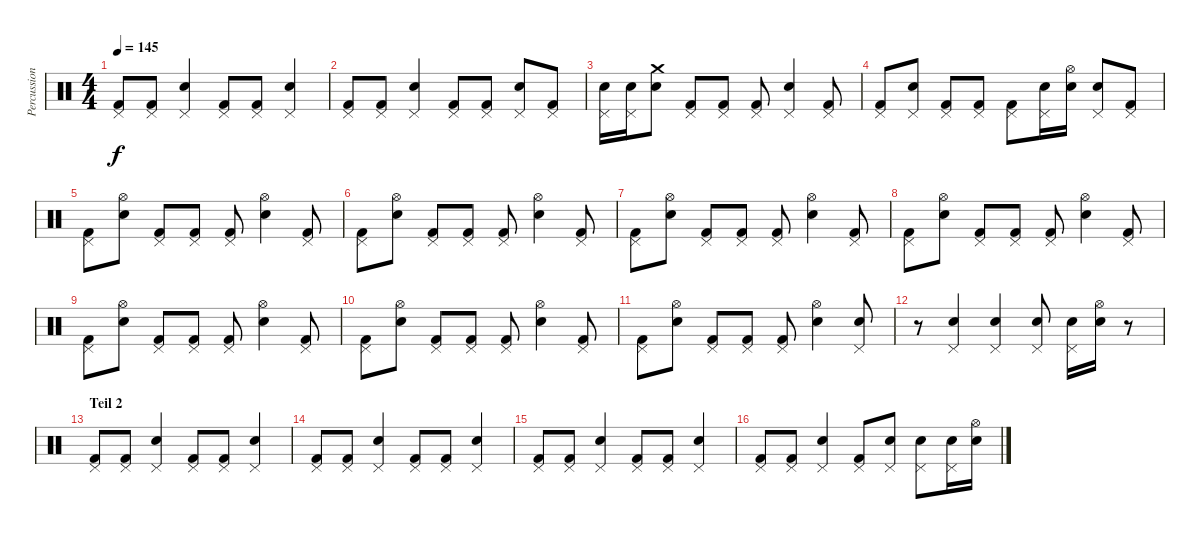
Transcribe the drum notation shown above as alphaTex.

\track ("Percussion" "Percussion") {instrument percussion}
\staff {score}
\articulation defaults
\ts (4 4)
\tempo 145
\clef neutral
\ks c
("Pedal Hi-Hat (hit)" "Kick (hit) 2").8{dy f} ("Pedal Hi-Hat (hit)" "Kick (hit) 2").8 ("Pedal Hi-Hat (hit)" "Snare (hit) 2").4 ("Pedal Hi-Hat (hit)" "Kick (hit) 2").8 ("Pedal Hi-Hat (hit)" "Kick (hit) 2").8 ("Pedal Hi-Hat (hit)" "Snare (hit) 2").4 |
("Pedal Hi-Hat (hit)" "Kick (hit) 2").8 ("Pedal Hi-Hat (hit)" "Kick (hit) 2").8 ("Pedal Hi-Hat (hit)" "Snare (hit) 2").4 ("Pedal Hi-Hat (hit)" "Kick (hit) 2").8 ("Pedal Hi-Hat (hit)" "Kick (hit) 2").8 ("Pedal Hi-Hat (hit)" "Snare (hit) 2").8 ("Pedal Hi-Hat (hit)" "Kick (hit) 2").8 |
("Pedal Hi-Hat (hit)" "Snare (hit) 2").16 ("Pedal Hi-Hat (hit)" "Snare (hit) 2").16 ("Crash medium (hit)" "Snare (hit) 2").8 ("Pedal Hi-Hat (hit)" "Kick (hit) 2").8 ("Pedal Hi-Hat (hit)" "Kick (hit) 2").8 ("Pedal Hi-Hat (hit)" "Kick (hit) 2").8 ("Pedal Hi-Hat (hit)" "Snare (hit) 2").4 ("Pedal Hi-Hat (hit)" "Kick (hit) 2").8 |
("Pedal Hi-Hat (hit)" "Kick (hit) 2").8 ("Pedal Hi-Hat (hit)" "Snare (hit) 2").8 ("Pedal Hi-Hat (hit)" "Kick (hit) 2").8 ("Pedal Hi-Hat (hit)" "Kick (hit) 2").8 ("Pedal Hi-Hat (hit)" "Kick (hit) 2").8 ("Pedal Hi-Hat (hit)" "Snare (hit) 2").16 ("Hi-Hat (open)" "Snare (hit) 2").16 ("Pedal Hi-Hat (hit)" "Snare (hit) 2").8 ("Pedal Hi-Hat (hit)" "Kick (hit) 2").8 |
("Pedal Hi-Hat (hit)" "Kick (hit) 2").8 ("Hi-Hat (open)" "Snare (hit) 2").8 ("Pedal Hi-Hat (hit)" "Kick (hit) 2").8 ("Pedal Hi-Hat (hit)" "Kick (hit) 2").8 ("Pedal Hi-Hat (hit)" "Kick (hit) 2").8 ("Hi-Hat (open)" "Snare (hit) 2").4 ("Pedal Hi-Hat (hit)" "Kick (hit) 2").8 |
("Pedal Hi-Hat (hit)" "Kick (hit) 2").8 ("Hi-Hat (open)" "Snare (hit) 2").8 ("Pedal Hi-Hat (hit)" "Kick (hit) 2").8 ("Pedal Hi-Hat (hit)" "Kick (hit) 2").8 ("Pedal Hi-Hat (hit)" "Kick (hit) 2").8 ("Hi-Hat (open)" "Snare (hit) 2").4 ("Pedal Hi-Hat (hit)" "Kick (hit) 2").8 |
("Pedal Hi-Hat (hit)" "Kick (hit) 2").8 ("Hi-Hat (open)" "Snare (hit) 2").8 ("Pedal Hi-Hat (hit)" "Kick (hit) 2").8 ("Pedal Hi-Hat (hit)" "Kick (hit) 2").8 ("Pedal Hi-Hat (hit)" "Kick (hit) 2").8 ("Hi-Hat (open)" "Snare (hit) 2").4 ("Pedal Hi-Hat (hit)" "Kick (hit) 2").8 |
("Pedal Hi-Hat (hit)" "Kick (hit) 2").8 ("Hi-Hat (open)" "Snare (hit) 2").8 ("Pedal Hi-Hat (hit)" "Kick (hit) 2").8 ("Pedal Hi-Hat (hit)" "Kick (hit) 2").8 ("Pedal Hi-Hat (hit)" "Kick (hit) 2").8 ("Hi-Hat (open)" "Snare (hit) 2").4 ("Pedal Hi-Hat (hit)" "Kick (hit) 2").8 |
("Pedal Hi-Hat (hit)" "Kick (hit) 2").8 ("Hi-Hat (open)" "Snare (hit) 2").8 ("Pedal Hi-Hat (hit)" "Kick (hit) 2").8 ("Pedal Hi-Hat (hit)" "Kick (hit) 2").8 ("Pedal Hi-Hat (hit)" "Kick (hit) 2").8 ("Hi-Hat (open)" "Snare (hit) 2").4 ("Pedal Hi-Hat (hit)" "Kick (hit) 2").8 |
("Pedal Hi-Hat (hit)" "Kick (hit) 2").8 ("Hi-Hat (open)" "Snare (hit) 2").8 ("Pedal Hi-Hat (hit)" "Kick (hit) 2").8 ("Pedal Hi-Hat (hit)" "Kick (hit) 2").8 ("Pedal Hi-Hat (hit)" "Kick (hit) 2").8 ("Hi-Hat (open)" "Snare (hit) 2").4 ("Pedal Hi-Hat (hit)" "Kick (hit) 2").8 |
("Pedal Hi-Hat (hit)" "Kick (hit) 2").8 ("Hi-Hat (open)" "Snare (hit) 2").8 ("Pedal Hi-Hat (hit)" "Kick (hit) 2").8 ("Pedal Hi-Hat (hit)" "Kick (hit) 2").8 ("Pedal Hi-Hat (hit)" "Kick (hit) 2").8 ("Hi-Hat (open)" "Snare (hit) 2").4 ("Pedal Hi-Hat (hit)" "Snare (hit) 2").8 |
r.8 ("Pedal Hi-Hat (hit)" "Snare (hit) 2").4 ("Pedal Hi-Hat (hit)" "Snare (hit) 2").4 ("Pedal Hi-Hat (hit)" "Snare (hit) 2").8 ("Pedal Hi-Hat (hit)" "Snare (hit) 2").16 ("Hi-Hat (open)" "Snare (hit) 2").16 r.8 |
\section ("" "Teil 2")
("Pedal Hi-Hat (hit)" "Kick (hit) 2").8 ("Pedal Hi-Hat (hit)" "Kick (hit) 2").8 ("Pedal Hi-Hat (hit)" "Snare (hit) 2").4 ("Pedal Hi-Hat (hit)" "Kick (hit) 2").8 ("Pedal Hi-Hat (hit)" "Kick (hit) 2").8 ("Pedal Hi-Hat (hit)" "Snare (hit) 2").4 |
("Pedal Hi-Hat (hit)" "Kick (hit) 2").8 ("Pedal Hi-Hat (hit)" "Kick (hit) 2").8 ("Pedal Hi-Hat (hit)" "Snare (hit) 2").4 ("Pedal Hi-Hat (hit)" "Kick (hit) 2").8 ("Pedal Hi-Hat (hit)" "Kick (hit) 2").8 ("Pedal Hi-Hat (hit)" "Snare (hit) 2").4 |
("Pedal Hi-Hat (hit)" "Kick (hit) 2").8 ("Pedal Hi-Hat (hit)" "Kick (hit) 2").8 ("Pedal Hi-Hat (hit)" "Snare (hit) 2").4 ("Pedal Hi-Hat (hit)" "Kick (hit) 2").8 ("Pedal Hi-Hat (hit)" "Kick (hit) 2").8 ("Pedal Hi-Hat (hit)" "Snare (hit) 2").4 |
("Pedal Hi-Hat (hit)" "Kick (hit) 2").8 ("Pedal Hi-Hat (hit)" "Kick (hit) 2").8 ("Pedal Hi-Hat (hit)" "Snare (hit) 2").4 ("Pedal Hi-Hat (hit)" "Kick (hit) 2").8 ("Pedal Hi-Hat (hit)" "Snare (hit) 2").8 ("Pedal Hi-Hat (hit)" "Snare (hit) 2").8 ("Pedal Hi-Hat (hit)" "Snare (hit) 2").16 ("Hi-Hat (open)" "Snare (hit) 2").16
